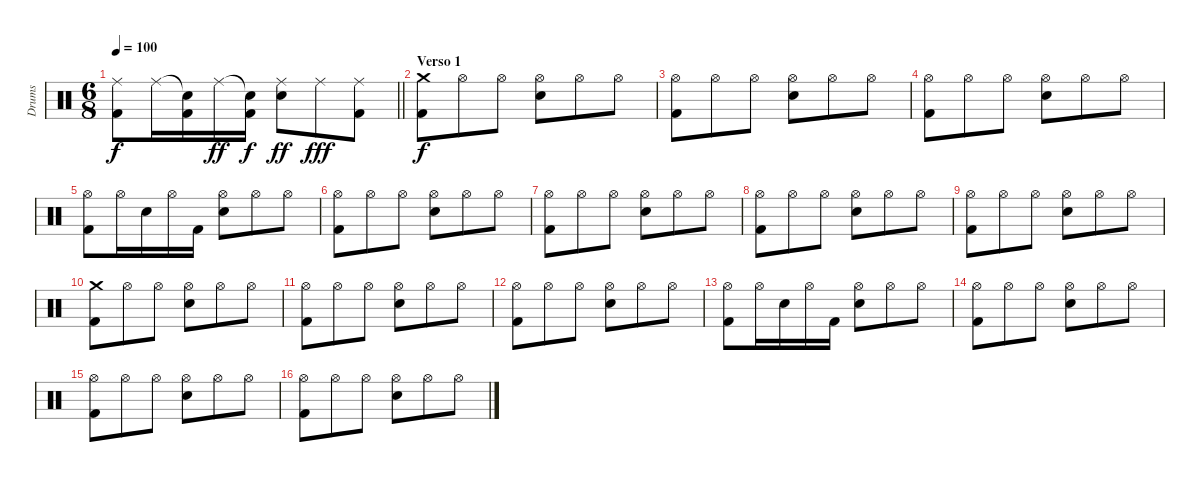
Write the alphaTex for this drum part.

\track ("Drums" "Drums") {instrument percussion}
\staff {score}
\articulation defaults
\ts (6 8)
\tempo 100
\clef neutral
\barLineRight lightlight
\ks c
("Ride (middle)" "Kick (hit) 2").8{dy f} "Ride (middle)".16 ("Snare (hit)"{t} "Kick (hit) 2").16 "Ride (middle)".16{dy ff} ("Snare (hit)"{t} "Kick (hit) 2").16{dy f} ("Ride (middle)" "Snare (hit) 2").8{dy ff} "Ride (middle)".8{dy fff} ("Ride (middle)" "Kick (hit) 2").8 |
\section ("" "Verso 1")
("Crash medium (hit)" "Kick (hit) 2").8{dy f} "Hi-Hat (open)".8 "Hi-Hat (open)".8 ("Hi-Hat (open)" "Snare (hit) 2").8 "Hi-Hat (open)".8 "Hi-Hat (open)".8 |
("Hi-Hat (open)" "Kick (hit) 2").8 "Hi-Hat (open)".8 "Hi-Hat (open)".8 ("Hi-Hat (open)" "Snare (hit) 2").8 "Hi-Hat (open)".8 "Hi-Hat (open)".8 |
("Hi-Hat (open)" "Kick (hit) 2").8 "Hi-Hat (open)".8 "Hi-Hat (open)".8 ("Hi-Hat (open)" "Snare (hit) 2").8 "Hi-Hat (open)".8 "Hi-Hat (open)".8 |
("Hi-Hat (open)" "Kick (hit) 2").8 "Hi-Hat (open)".16 "Snare (hit) 2".16 "Hi-Hat (open)".16 "Kick (hit) 2".16 ("Hi-Hat (open)" "Snare (hit) 2").8 "Hi-Hat (open)".8 "Hi-Hat (open)".8 |
("Hi-Hat (open)" "Kick (hit) 2").8 "Hi-Hat (open)".8 "Hi-Hat (open)".8 ("Hi-Hat (open)" "Snare (hit) 2").8 "Hi-Hat (open)".8 "Hi-Hat (open)".8 |
("Hi-Hat (open)" "Kick (hit) 2").8 "Hi-Hat (open)".8 "Hi-Hat (open)".8 ("Hi-Hat (open)" "Snare (hit) 2").8 "Hi-Hat (open)".8 "Hi-Hat (open)".8 |
("Hi-Hat (open)" "Kick (hit) 2").8 "Hi-Hat (open)".8 "Hi-Hat (open)".8 ("Hi-Hat (open)" "Snare (hit) 2").8 "Hi-Hat (open)".8 "Hi-Hat (open)".8 |
("Hi-Hat (open)" "Kick (hit) 2").8 "Hi-Hat (open)".8 "Hi-Hat (open)".8 ("Hi-Hat (open)" "Snare (hit) 2").8 "Hi-Hat (open)".8 "Hi-Hat (open)".8 |
("Crash medium (hit)" "Kick (hit) 2").8 "Hi-Hat (open)".8 "Hi-Hat (open)".8 ("Hi-Hat (open)" "Snare (hit) 2").8 "Hi-Hat (open)".8 "Hi-Hat (open)".8 |
("Hi-Hat (open)" "Kick (hit) 2").8 "Hi-Hat (open)".8 "Hi-Hat (open)".8 ("Hi-Hat (open)" "Snare (hit) 2").8 "Hi-Hat (open)".8 "Hi-Hat (open)".8 |
("Hi-Hat (open)" "Kick (hit) 2").8 "Hi-Hat (open)".8 "Hi-Hat (open)".8 ("Hi-Hat (open)" "Snare (hit) 2").8 "Hi-Hat (open)".8 "Hi-Hat (open)".8 |
("Hi-Hat (open)" "Kick (hit) 2").8 "Hi-Hat (open)".16 "Snare (hit) 2".16 "Hi-Hat (open)".16 "Kick (hit) 2".16 ("Hi-Hat (open)" "Snare (hit) 2").8 "Hi-Hat (open)".8 "Hi-Hat (open)".8 |
("Hi-Hat (open)" "Kick (hit) 2").8 "Hi-Hat (open)".8 "Hi-Hat (open)".8 ("Hi-Hat (open)" "Snare (hit) 2").8 "Hi-Hat (open)".8 "Hi-Hat (open)".8 |
("Hi-Hat (open)" "Kick (hit) 2").8 "Hi-Hat (open)".8 "Hi-Hat (open)".8 ("Hi-Hat (open)" "Snare (hit) 2").8 "Hi-Hat (open)".8 "Hi-Hat (open)".8 |
("Hi-Hat (open)" "Kick (hit) 2").8 "Hi-Hat (open)".8 "Hi-Hat (open)".8 ("Hi-Hat (open)" "Snare (hit) 2").8 "Hi-Hat (open)".8 "Hi-Hat (open)".8
